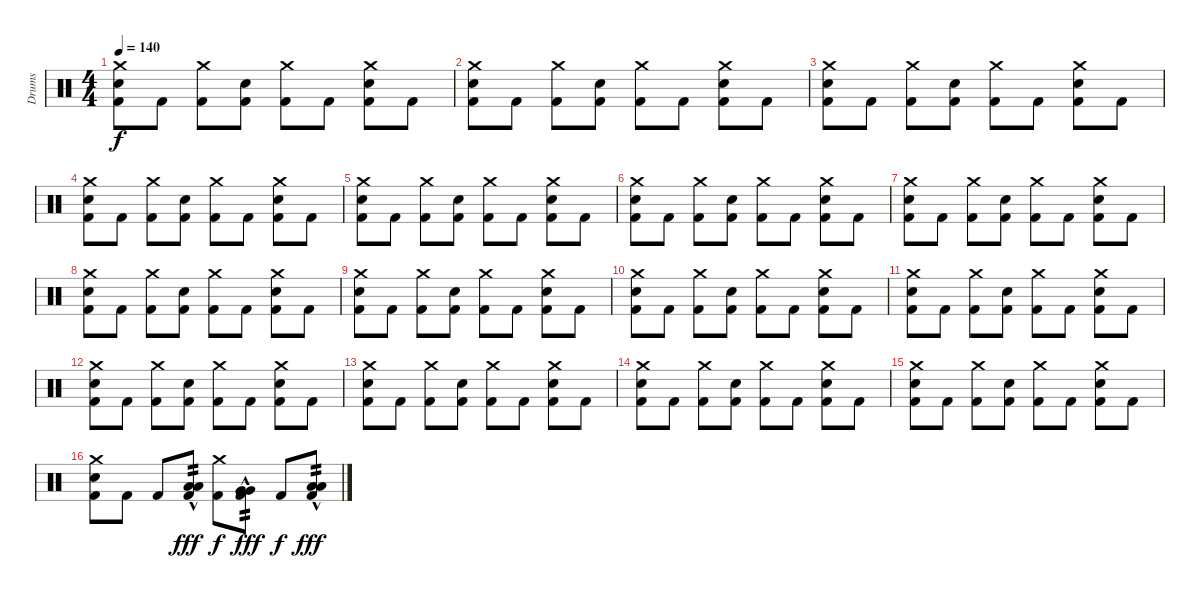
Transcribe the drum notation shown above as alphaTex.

\track ("Drums" "Drums") {instrument percussion}
\staff {score}
\articulation defaults
\ts (4 4)
\tempo 140
\clef neutral
\ks c
("Crash medium (hit)" "Snare (hit) 2" "Kick (hit) 2").8{dy f} "Kick (hit) 2".8 ("Crash medium (hit)" "Kick (hit) 2").8 ("Snare (hit) 2" "Kick (hit) 2").8 ("Crash medium (hit)" "Kick (hit) 2").8 "Kick (hit) 2".8 ("Crash medium (hit)" "Snare (hit) 2" "Kick (hit) 2").8 "Kick (hit) 2".8 |
("Crash medium (hit)" "Snare (hit) 2" "Kick (hit) 2").8 "Kick (hit) 2".8 ("Crash medium (hit)" "Kick (hit) 2").8 ("Snare (hit) 2" "Kick (hit) 2").8 ("Crash medium (hit)" "Kick (hit) 2").8 "Kick (hit) 2".8 ("Crash medium (hit)" "Snare (hit) 2" "Kick (hit) 2").8 "Kick (hit) 2".8 |
("Crash medium (hit)" "Snare (hit) 2" "Kick (hit) 2").8 "Kick (hit) 2".8 ("Crash medium (hit)" "Kick (hit) 2").8 ("Snare (hit) 2" "Kick (hit) 2").8 ("Crash medium (hit)" "Kick (hit) 2").8 "Kick (hit) 2".8 ("Crash medium (hit)" "Snare (hit) 2" "Kick (hit) 2").8 "Kick (hit) 2".8 |
("Crash medium (hit)" "Snare (hit) 2" "Kick (hit) 2").8 "Kick (hit) 2".8 ("Crash medium (hit)" "Kick (hit) 2").8 ("Snare (hit) 2" "Kick (hit) 2").8 ("Crash medium (hit)" "Kick (hit) 2").8 "Kick (hit) 2".8 ("Crash medium (hit)" "Snare (hit) 2" "Kick (hit) 2").8 "Kick (hit) 2".8 |
("Crash medium (hit)" "Snare (hit) 2" "Kick (hit) 2").8 "Kick (hit) 2".8 ("Crash medium (hit)" "Kick (hit) 2").8 ("Snare (hit) 2" "Kick (hit) 2").8 ("Crash medium (hit)" "Kick (hit) 2").8 "Kick (hit) 2".8 ("Crash medium (hit)" "Snare (hit) 2" "Kick (hit) 2").8 "Kick (hit) 2".8 |
("Crash medium (hit)" "Snare (hit) 2" "Kick (hit) 2").8 "Kick (hit) 2".8 ("Crash medium (hit)" "Kick (hit) 2").8 ("Snare (hit) 2" "Kick (hit) 2").8 ("Crash medium (hit)" "Kick (hit) 2").8 "Kick (hit) 2".8 ("Crash medium (hit)" "Snare (hit) 2" "Kick (hit) 2").8 "Kick (hit) 2".8 |
("Crash medium (hit)" "Snare (hit) 2" "Kick (hit) 2").8 "Kick (hit) 2".8 ("Crash medium (hit)" "Kick (hit) 2").8 ("Snare (hit) 2" "Kick (hit) 2").8 ("Crash medium (hit)" "Kick (hit) 2").8 "Kick (hit) 2".8 ("Crash medium (hit)" "Snare (hit) 2" "Kick (hit) 2").8 "Kick (hit) 2".8 |
("Crash medium (hit)" "Snare (hit) 2" "Kick (hit) 2").8 "Kick (hit) 2".8 ("Crash medium (hit)" "Kick (hit) 2").8 ("Snare (hit) 2" "Kick (hit) 2").8 ("Crash medium (hit)" "Kick (hit) 2").8 "Kick (hit) 2".8 ("Crash medium (hit)" "Snare (hit) 2" "Kick (hit) 2").8 "Kick (hit) 2".8 |
("Crash medium (hit)" "Snare (hit) 2" "Kick (hit) 2").8 "Kick (hit) 2".8 ("Crash medium (hit)" "Kick (hit) 2").8 ("Snare (hit) 2" "Kick (hit) 2").8 ("Crash medium (hit)" "Kick (hit) 2").8 "Kick (hit) 2".8 ("Crash medium (hit)" "Snare (hit) 2" "Kick (hit) 2").8 "Kick (hit) 2".8 |
("Crash medium (hit)" "Snare (hit) 2" "Kick (hit) 2").8 "Kick (hit) 2".8 ("Crash medium (hit)" "Kick (hit) 2").8 ("Snare (hit) 2" "Kick (hit) 2").8 ("Crash medium (hit)" "Kick (hit) 2").8 "Kick (hit) 2".8 ("Crash medium (hit)" "Snare (hit) 2" "Kick (hit) 2").8 "Kick (hit) 2".8 |
("Crash medium (hit)" "Snare (hit) 2" "Kick (hit) 2").8 "Kick (hit) 2".8 ("Crash medium (hit)" "Kick (hit) 2").8 ("Snare (hit) 2" "Kick (hit) 2").8 ("Crash medium (hit)" "Kick (hit) 2").8 "Kick (hit) 2".8 ("Crash medium (hit)" "Snare (hit) 2" "Kick (hit) 2").8 "Kick (hit) 2".8 |
("Crash medium (hit)" "Snare (hit) 2" "Kick (hit) 2").8 "Kick (hit) 2".8 ("Crash medium (hit)" "Kick (hit) 2").8 ("Snare (hit) 2" "Kick (hit) 2").8 ("Crash medium (hit)" "Kick (hit) 2").8 "Kick (hit) 2".8 ("Crash medium (hit)" "Snare (hit) 2" "Kick (hit) 2").8 "Kick (hit) 2".8 |
("Crash medium (hit)" "Snare (hit) 2" "Kick (hit) 2").8 "Kick (hit) 2".8 ("Crash medium (hit)" "Kick (hit) 2").8 ("Snare (hit) 2" "Kick (hit) 2").8 ("Crash medium (hit)" "Kick (hit) 2").8 "Kick (hit) 2".8 ("Crash medium (hit)" "Snare (hit) 2" "Kick (hit) 2").8 "Kick (hit) 2".8 |
("Crash medium (hit)" "Snare (hit) 2" "Kick (hit) 2").8 "Kick (hit) 2".8 ("Crash medium (hit)" "Kick (hit) 2").8 ("Snare (hit) 2" "Kick (hit) 2").8 ("Crash medium (hit)" "Kick (hit) 2").8 "Kick (hit) 2".8 ("Crash medium (hit)" "Snare (hit) 2" "Kick (hit) 2").8 "Kick (hit) 2".8 |
("Crash medium (hit)" "Snare (hit) 2" "Kick (hit) 2").8 "Kick (hit) 2".8 ("Crash medium (hit)" "Kick (hit) 2").8 ("Snare (hit) 2" "Kick (hit) 2").8 ("Crash medium (hit)" "Kick (hit) 2").8 "Kick (hit) 2".8 ("Crash medium (hit)" "Snare (hit) 2" "Kick (hit) 2").8 "Kick (hit) 2".8 |
("Crash medium (hit)" "Snare (hit) 2" "Kick (hit) 2").8 "Kick (hit) 2".8 "Kick (hit) 2".8 ("Low Tom (hit)" "Low Tom (hit)"{hac} "Kick (hit) 2").8{tp 2 dy fff} ("Crash medium (hit)" "Kick (hit) 2").8{dy f} ("Very Low Tom (hit)" "Very Low Tom (hit)"{hac} "Kick (hit) 2").8{tp 2 dy fff} "Kick (hit) 2".8{dy f} ("Low Floor Tom (hit)" "Low Floor Tom (hit)"{hac} "Kick (hit) 2").8{tp 2 dy fff}
